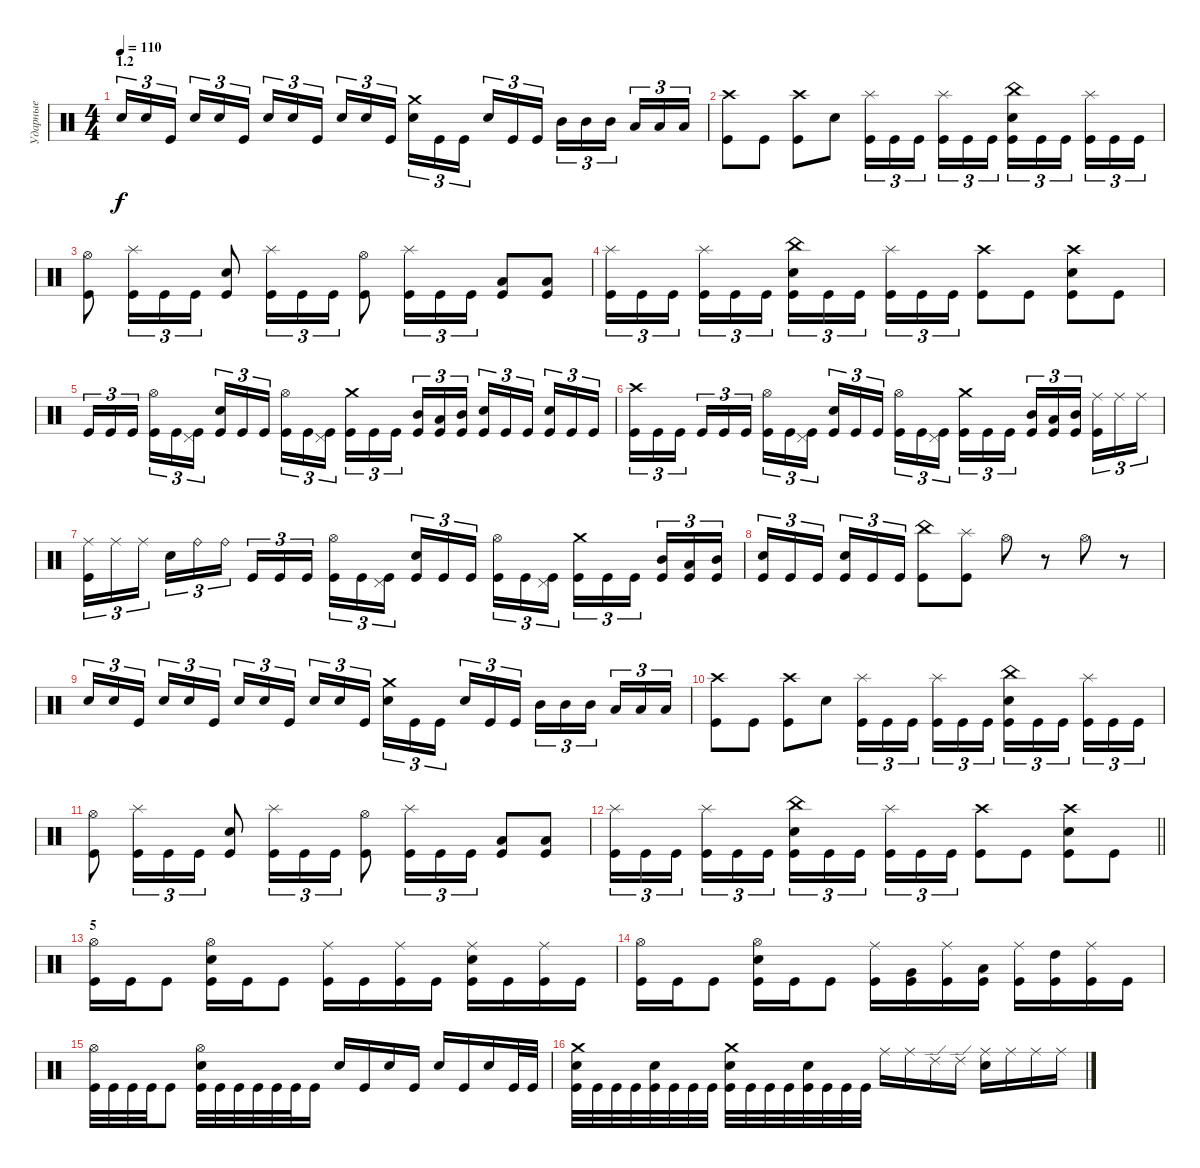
\track ("Ударные" "Ударные") {instrument percussion}
\staff {score}
\articulation defaults
\ts (4 4)
\section ("" "1.2")
\tempo 110
\clef neutral
\ks c "Electric Snare (hit)".16{tu (3 2) dy f} "Electric Snare (hit)".16{tu (3 2)} "Kick (hit)".16{tu (3 2) beam splitsecondary} "Electric Snare (hit)".16{tu (3 2)} "Electric Snare (hit)".16{tu (3 2)} "Kick (hit)".16{tu (3 2)} "Electric Snare (hit)".16{tu (3 2)} "Electric Snare (hit)".16{tu (3 2)} "Kick (hit)".16{tu (3 2) beam splitsecondary} "Electric Snare (hit)".16{tu (3 2)} "Electric Snare (hit)".16{tu (3 2)} "Kick (hit)".16{tu (3 2)}
("Crash medium (hit)" "Electric Snare (hit)").16{tu (3 2)} "Kick (hit)".16{tu (3 2)} "Kick (hit)".16{tu (3 2) beam splitsecondary} "Electric Snare (hit)".16{tu (3 2)} "Kick (hit)".16{tu (3 2)} "Kick (hit)".16{tu (3 2)} "Mid Tom (hit)".16{tu (3 2)} "Mid Tom (hit)".16{tu (3 2)} "Mid Tom (hit)".16{tu (3 2) beam splitsecondary} "Low Tom (hit)".16{tu (3 2)} "Low Tom (hit)".16{tu (3 2)} "Low Tom (hit)".16{tu (3 2)} |
("Crash high (hit)" "Kick (hit)").8 "Kick (hit)".8 ("Crash high (hit)" "Kick (hit)").8 "Electric Snare (hit)".8 ("Splash (hit)" "Kick (hit)").16{tu (3 2)} "Kick (hit)".16{tu (3 2)} "Kick (hit)".16{tu (3 2) beam splitsecondary} ("Splash (hit)" "Kick (hit)").16{tu (3 2)} "Kick (hit)".16{tu (3 2)} "Kick (hit)".16{tu (3 2)} ("China (hit)" "Electric Snare (hit)" "Kick (hit)").16{tu (3 2)} "Kick (hit)".16{tu (3 2)} "Kick (hit)".16{tu (3 2) beam splitsecondary} ("Splash (hit)" "Kick (hit)").16{tu (3 2)} "Kick (hit)".16{tu (3 2)} "Kick (hit)".16{tu (3 2)} |
("Hi-Hat (open)" "Kick (hit)").8 ("Splash (hit)" "Kick (hit)").16{tu (3 2)} "Kick (hit)".16{tu (3 2)} "Kick (hit)".16{tu (3 2)} ("Electric Snare (hit)" "Kick (hit)").8 ("Splash (hit)" "Kick (hit)").16{tu (3 2)} "Kick (hit)".16{tu (3 2)} "Kick (hit)".16{tu (3 2)} ("Hi-Hat (open)" "Kick (hit)").8 ("Splash (hit)" "Kick (hit)").16{tu (3 2)} "Kick (hit)".16{tu (3 2)} "Kick (hit)".16{tu (3 2)} ("Low Floor Tom (hit)" "Kick (hit)").8 ("Low Floor Tom (hit)" "Kick (hit)").8 |
("Splash (hit)" "Kick (hit)").16{tu (3 2)} "Kick (hit)".16{tu (3 2)} "Kick (hit)".16{tu (3 2) beam splitsecondary} ("Splash (hit)" "Kick (hit)").16{tu (3 2)} "Kick (hit)".16{tu (3 2)} "Kick (hit)".16{tu (3 2)} ("China (hit)" "Electric Snare (hit)" "Kick (hit)").16{tu (3 2)} "Kick (hit)".16{tu (3 2)} "Kick (hit)".16{tu (3 2) beam splitsecondary} ("Splash (hit)" "Kick (hit)").16{tu (3 2)} "Kick (hit)".16{tu (3 2)} "Kick (hit)".16{tu (3 2)} ("Crash high (hit)" "Kick (hit)").8 "Kick (hit)".8 ("Crash high (hit)" "Electric Snare (hit)" "Kick (hit)").8 "Kick (hit)".8 |
"Kick (hit)".16{tu (3 2)} "Kick (hit)".16{tu (3 2)} "Kick (hit)".16{tu (3 2) beam splitsecondary} ("Hi-Hat (open)" "Kick (hit)").16{tu (3 2)} "Kick (hit)".16{tu (3 2)} ("Pedal Hi-Hat (hit)" "Kick (hit)").16{tu (3 2)} ("Electric Snare (hit)" "Kick (hit)").16{tu (3 2)} "Kick (hit)".16{tu (3 2)} "Kick (hit)".16{tu (3 2) beam splitsecondary} ("Hi-Hat (open)" "Kick (hit)").16{tu (3 2)} "Kick (hit)".16{tu (3 2)} ("Pedal Hi-Hat (hit)" "Kick (hit)").16{tu (3 2)} ("Crash medium (hit)" "Kick (hit)").16{tu (3 2)} "Kick (hit)".16{tu (3 2)} "Kick (hit)".16{tu (3 2) beam splitsecondary} ("Mid Tom (hit)" "Kick (hit)").16{tu (3 2)} ("Low Tom (hit)" "Kick (hit)").16{tu (3 2)} ("Mid Tom (hit)" "Kick (hit)").16{tu (3 2)} ("Electric Snare (hit)" "Kick (hit)").16{tu (3 2)} "Kick (hit)".16{tu (3 2)} "Kick (hit)".16{tu (3 2) beam splitsecondary} ("Electric Snare (hit)" "Kick (hit)").16{tu (3 2)} "Kick (hit)".16{tu (3 2)} "Kick (hit)".16{tu (3 2)} |
("Crash high (hit)" "Kick (hit)").16{tu (3 2)} "Kick (hit)".16{tu (3 2)} "Kick (hit)".16{tu (3 2) beam splitsecondary} "Kick (hit)".16{tu (3 2)} "Kick (hit)".16{tu (3 2)} "Kick (hit)".16{tu (3 2)} ("Hi-Hat (open)" "Kick (hit)").16{tu (3 2)} "Kick (hit)".16{tu (3 2)} ("Pedal Hi-Hat (hit)" "Kick (hit)").16{tu (3 2) beam splitsecondary} ("Electric Snare (hit)" "Kick (hit)").16{tu (3 2)} "Kick (hit)".16{tu (3 2)} "Kick (hit)".16{tu (3 2)} ("Hi-Hat (open)" "Kick (hit)").16{tu (3 2)} "Kick (hit)".16{tu (3 2)} ("Pedal Hi-Hat (hit)" "Kick (hit)").16{tu (3 2) beam splitsecondary} ("Crash medium (hit)" "Kick (hit)").16{tu (3 2)} "Kick (hit)".16{tu (3 2)} "Kick (hit)".16{tu (3 2)} ("Mid Tom (hit)" "Kick (hit)").16{tu (3 2)} ("Low Tom (hit)" "Kick (hit)").16{tu (3 2)} ("Mid Tom (hit)" "Kick (hit)").16{tu (3 2) beam splitsecondary} ("Ride (middle)" "Kick (hit)").16{tu (3 2)} "Ride (middle)".16{tu (3 2)} "Ride (middle)".16{tu (3 2)} |
("Ride (middle)" "Kick (hit)").16{tu (3 2)} "Ride (middle)".16{tu (3 2)} "Ride (middle)".16{tu (3 2) beam splitsecondary} "Electric Snare (hit)".16{tu (3 2)} "Ride (bell)".16{tu (3 2)} "Ride (bell)".16{tu (3 2)} "Kick (hit)".16{tu (3 2)} "Kick (hit)".16{tu (3 2)} "Kick (hit)".16{tu (3 2) beam splitsecondary} ("Hi-Hat (open)" "Kick (hit)").16{tu (3 2)} "Kick (hit)".16{tu (3 2)} ("Pedal Hi-Hat (hit)" "Kick (hit)").16{tu (3 2)} ("Electric Snare (hit)" "Kick (hit)").16{tu (3 2)} "Kick (hit)".16{tu (3 2)} "Kick (hit)".16{tu (3 2) beam splitsecondary} ("Hi-Hat (open)" "Kick (hit)").16{tu (3 2)} "Kick (hit)".16{tu (3 2)} ("Pedal Hi-Hat (hit)" "Kick (hit)").16{tu (3 2)} ("Crash medium (hit)" "Kick (hit)").16{tu (3 2)} "Kick (hit)".16{tu (3 2)} "Kick (hit)".16{tu (3 2) beam splitsecondary} ("Mid Tom (hit)" "Kick (hit)").16{tu (3 2)} ("Low Tom (hit)" "Kick (hit)").16{tu (3 2)} ("Mid Tom (hit)" "Kick (hit)").16{tu (3 2)} |
("Electric Snare (hit)" "Kick (hit)").16{tu (3 2)} "Kick (hit)".16{tu (3 2)} "Kick (hit)".16{tu (3 2) beam splitsecondary} ("Electric Snare (hit)" "Kick (hit)").16{tu (3 2)} "Kick (hit)".16{tu (3 2)} "Kick (hit)".16{tu (3 2)} ("China (hit)" "Kick (hit)").8 ("Splash (hit)" "Kick (hit)").8 "Hi-Hat (open)".8 r.8 "Hi-Hat (open)".8 r.8 |
"Electric Snare (hit)".16{tu (3 2)} "Electric Snare (hit)".16{tu (3 2)} "Kick (hit)".16{tu (3 2) beam splitsecondary} "Electric Snare (hit)".16{tu (3 2)} "Electric Snare (hit)".16{tu (3 2)} "Kick (hit)".16{tu (3 2)} "Electric Snare (hit)".16{tu (3 2)} "Electric Snare (hit)".16{tu (3 2)} "Kick (hit)".16{tu (3 2) beam splitsecondary} "Electric Snare (hit)".16{tu (3 2)} "Electric Snare (hit)".16{tu (3 2)} "Kick (hit)".16{tu (3 2)} ("Crash medium (hit)" "Electric Snare (hit)").16{tu (3 2)} "Kick (hit)".16{tu (3 2)} "Kick (hit)".16{tu (3 2) beam splitsecondary} "Electric Snare (hit)".16{tu (3 2)} "Kick (hit)".16{tu (3 2)} "Kick (hit)".16{tu (3 2)} "Mid Tom (hit)".16{tu (3 2)} "Mid Tom (hit)".16{tu (3 2)} "Mid Tom (hit)".16{tu (3 2) beam splitsecondary} "Low Tom (hit)".16{tu (3 2)} "Low Tom (hit)".16{tu (3 2)} "Low Tom (hit)".16{tu (3 2)} |
("Crash high (hit)" "Kick (hit)").8 "Kick (hit)".8 ("Crash high (hit)" "Kick (hit)").8 "Electric Snare (hit)".8 ("Splash (hit)" "Kick (hit)").16{tu (3 2)} "Kick (hit)".16{tu (3 2)} "Kick (hit)".16{tu (3 2) beam splitsecondary} ("Splash (hit)" "Kick (hit)").16{tu (3 2)} "Kick (hit)".16{tu (3 2)} "Kick (hit)".16{tu (3 2)} ("China (hit)" "Electric Snare (hit)" "Kick (hit)").16{tu (3 2)} "Kick (hit)".16{tu (3 2)} "Kick (hit)".16{tu (3 2) beam splitsecondary} ("Splash (hit)" "Kick (hit)").16{tu (3 2)} "Kick (hit)".16{tu (3 2)} "Kick (hit)".16{tu (3 2)} |
("Hi-Hat (open)" "Kick (hit)").8 ("Splash (hit)" "Kick (hit)").16{tu (3 2)} "Kick (hit)".16{tu (3 2)} "Kick (hit)".16{tu (3 2)} ("Electric Snare (hit)" "Kick (hit)").8 ("Splash (hit)" "Kick (hit)").16{tu (3 2)} "Kick (hit)".16{tu (3 2)} "Kick (hit)".16{tu (3 2)} ("Hi-Hat (open)" "Kick (hit)").8 ("Splash (hit)" "Kick (hit)").16{tu (3 2)} "Kick (hit)".16{tu (3 2)} "Kick (hit)".16{tu (3 2)} ("Low Floor Tom (hit)" "Kick (hit)").8 ("Low Floor Tom (hit)" "Kick (hit)").8 |
\barLineRight lightlight
("Splash (hit)" "Kick (hit)").16{tu (3 2)} "Kick (hit)".16{tu (3 2)} "Kick (hit)".16{tu (3 2) beam splitsecondary} ("Splash (hit)" "Kick (hit)").16{tu (3 2)} "Kick (hit)".16{tu (3 2)} "Kick (hit)".16{tu (3 2)} ("China (hit)" "Electric Snare (hit)" "Kick (hit)").16{tu (3 2)} "Kick (hit)".16{tu (3 2)} "Kick (hit)".16{tu (3 2) beam splitsecondary} ("Splash (hit)" "Kick (hit)").16{tu (3 2)} "Kick (hit)".16{tu (3 2)} "Kick (hit)".16{tu (3 2)} ("Crash high (hit)" "Kick (hit)").8 "Kick (hit)".8 ("Crash high (hit)" "Electric Snare (hit)" "Kick (hit)").8 "Kick (hit)".8 |
\section ("" "5")
("Hi-Hat (open)" "Kick (hit)").16 "Kick (hit)".16 "Kick (hit)".8 ("Hi-Hat (open)" "Electric Snare (hit)" "Kick (hit)").16 "Kick (hit)".16 "Kick (hit)".8 ("Ride (middle)" "Kick (hit)").16 "Kick (hit)".16 ("Ride (middle)" "Kick (hit)").16 "Kick (hit)".16 ("Ride (middle)" "Electric Snare (hit)" "Kick (hit)").16 "Kick (hit)".16 ("Ride (middle)" "Kick (hit)").16 "Kick (hit)".16 |
("Hi-Hat (open)" "Kick (hit)").16 "Kick (hit)".16 "Kick (hit)".8 ("Hi-Hat (open)" "Electric Snare (hit)" "Kick (hit)").16 "Kick (hit)".16 "Kick (hit)".8 ("Ride (middle)" "Kick (hit)").16 ("Very Low Tom (hit)" "Kick (hit)").16 ("Ride (middle)" "Kick (hit)").16 ("Low Tom (hit)" "Kick (hit)").16 ("Ride (middle)" "Kick (hit)").16 ("High Tom (hit)" "Kick (hit)").16 ("Ride (middle)" "Kick (hit)").16 "Kick (hit)".16 |
("Hi-Hat (open)" "Kick (hit)").32 "Kick (hit)".32 "Kick (hit)".32 "Kick (hit)".32 "Kick (hit)".8 ("Hi-Hat (open)" "Electric Snare (hit)" "Kick (hit)").32 "Kick (hit)".32 "Kick (hit)".32 "Kick (hit)".32 "Kick (hit)".32 "Kick (hit)".32 "Kick (hit)".16 "Electric Snare (hit)".16 "Kick (hit)".16 "Electric Snare (hit)".16 "Kick (hit)".16 "Electric Snare (hit)".16 "Kick (hit)".16 "Electric Snare (hit)".16 "Kick (hit)".32 "Kick (hit)".32 |
("Crash medium (hit)" "Electric Snare (hit)" "Kick (hit)").32 "Kick (hit)".32 "Kick (hit)".32 "Kick (hit)".32 ("Electric Snare (hit)" "Kick (hit)").32 "Kick (hit)".32 "Kick (hit)".32 "Kick (hit)".32 ("Crash medium (hit)" "Electric Snare (hit)" "Kick (hit)").32 "Kick (hit)".32 "Kick (hit)".32 "Kick (hit)".32 ("Electric Snare (hit)" "Kick (hit)").32 "Kick (hit)".32 "Kick (hit)".32 "Kick (hit)".32 "Ride (middle)".16 "Ride (middle)".16 "Ride (edge) 2".16 "Ride (edge) 2".16 ("Ride (middle)" "Electric Snare (hit)").16 "Ride (middle)".16 "Ride (middle)".16 "Ride (middle)".16
